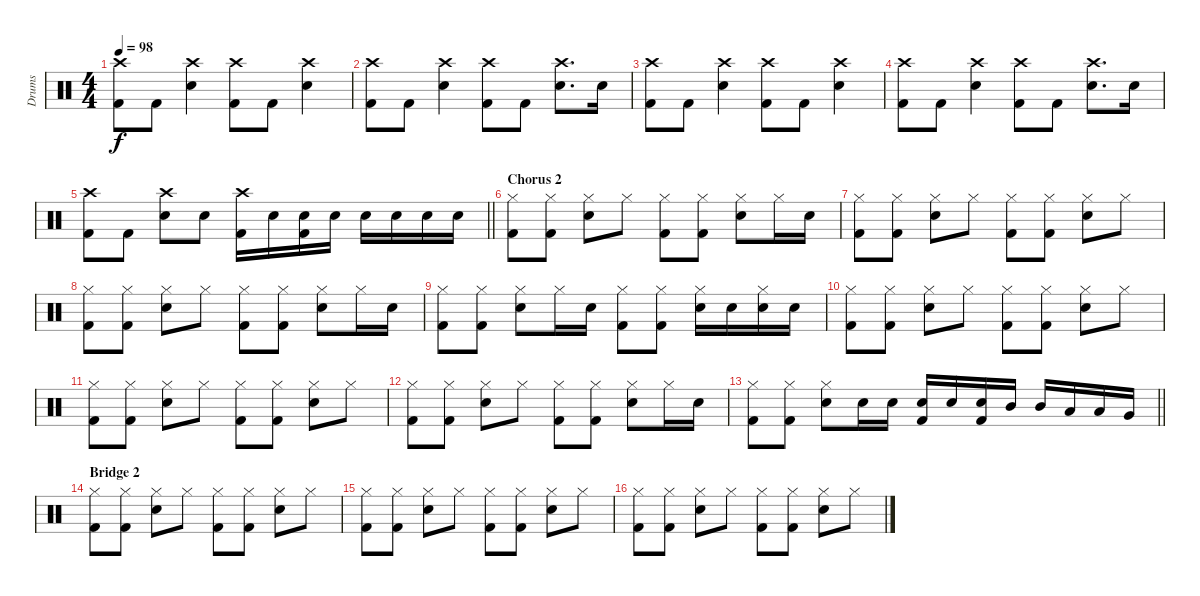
\track ("Drums" "Drums") {instrument percussion}
\staff {score}
\articulation defaults
\ts (4 4)
\tempo 98
\clef neutral
\ks c
("Crash high (hit)" "Kick (hit) 2").8{dy f} "Kick (hit) 2".8 ("Crash high (hit)" "Electric Snare (hit)").4 ("Crash high (hit)" "Kick (hit) 2").8 "Kick (hit) 2".8 ("Crash high (hit)" "Electric Snare (hit)").4 |
("Crash high (hit)" "Kick (hit) 2").8 "Kick (hit) 2".8 ("Crash high (hit)" "Electric Snare (hit)").4 ("Crash high (hit)" "Kick (hit) 2").8 "Kick (hit) 2".8 ("Crash high (hit)" "Electric Snare (hit)").8{d} "Electric Snare (hit)".16 |
("Crash high (hit)" "Kick (hit) 2").8 "Kick (hit) 2".8 ("Crash high (hit)" "Electric Snare (hit)").4 ("Crash high (hit)" "Kick (hit) 2").8 "Kick (hit) 2".8 ("Crash high (hit)" "Electric Snare (hit)").4 |
("Crash high (hit)" "Kick (hit) 2").8 "Kick (hit) 2".8 ("Crash high (hit)" "Electric Snare (hit)").4 ("Crash high (hit)" "Kick (hit) 2").8 "Kick (hit) 2".8 ("Crash high (hit)" "Electric Snare (hit)").8{d} "Electric Snare (hit)".16 |
\barLineRight lightlight
("Crash high (hit)" "Kick (hit) 2").8 "Kick (hit) 2".8 ("Crash high (hit)" "Electric Snare (hit)").8 "Electric Snare (hit)".8 ("Crash high (hit)" "Kick (hit) 2").16 "Electric Snare (hit)".16 ("Electric Snare (hit)" "Kick (hit) 2").16 "Electric Snare (hit)".16 "Electric Snare (hit)".16 "Electric Snare (hit)".16 "Electric Snare (hit)".16 "Electric Snare (hit)".16 |
\section ("" "Chorus 2")
("Hi-Hat (closed)" "Kick (hit) 2").8 ("Hi-Hat (closed)" "Kick (hit) 2").8 ("Hi-Hat (closed)" "Electric Snare (hit)").8 "Hi-Hat (closed)".8 ("Hi-Hat (closed)" "Kick (hit) 2").8 ("Hi-Hat (closed)" "Kick (hit) 2").8 ("Hi-Hat (closed)" "Electric Snare (hit)").8 "Hi-Hat (closed)".16 "Electric Snare (hit)".16 |
("Hi-Hat (closed)" "Kick (hit) 2").8 ("Hi-Hat (closed)" "Kick (hit) 2").8 ("Hi-Hat (closed)" "Electric Snare (hit)").8 "Hi-Hat (closed)".8 ("Hi-Hat (closed)" "Kick (hit) 2").8 ("Hi-Hat (closed)" "Kick (hit) 2").8 ("Hi-Hat (closed)" "Electric Snare (hit)").8 "Hi-Hat (closed)".8 |
("Hi-Hat (closed)" "Kick (hit) 2").8 ("Hi-Hat (closed)" "Kick (hit) 2").8 ("Hi-Hat (closed)" "Electric Snare (hit)").8 "Hi-Hat (closed)".8 ("Hi-Hat (closed)" "Kick (hit) 2").8 ("Hi-Hat (closed)" "Kick (hit) 2").8 ("Hi-Hat (closed)" "Electric Snare (hit)").8 "Hi-Hat (closed)".16 "Electric Snare (hit)".16 |
("Hi-Hat (closed)" "Kick (hit) 2").8 ("Hi-Hat (closed)" "Kick (hit) 2").8 ("Hi-Hat (closed)" "Electric Snare (hit)").8 "Hi-Hat (closed)".16 "Electric Snare (hit)".16 ("Hi-Hat (closed)" "Kick (hit) 2").8 ("Hi-Hat (closed)" "Kick (hit) 2").8 ("Hi-Hat (closed)" "Electric Snare (hit)").16 "Electric Snare (hit)".16 ("Hi-Hat (closed)" "Electric Snare (hit)").16 "Electric Snare (hit)".16 |
("Hi-Hat (closed)" "Kick (hit) 2").8 ("Hi-Hat (closed)" "Kick (hit) 2").8 ("Hi-Hat (closed)" "Electric Snare (hit)").8 "Hi-Hat (closed)".8 ("Hi-Hat (closed)" "Kick (hit) 2").8 ("Hi-Hat (closed)" "Kick (hit) 2").8 ("Hi-Hat (closed)" "Electric Snare (hit)").8 "Hi-Hat (closed)".8 |
("Hi-Hat (closed)" "Kick (hit) 2").8 ("Hi-Hat (closed)" "Kick (hit) 2").8 ("Hi-Hat (closed)" "Electric Snare (hit)").8 "Hi-Hat (closed)".8 ("Hi-Hat (closed)" "Kick (hit) 2").8 ("Hi-Hat (closed)" "Kick (hit) 2").8 ("Hi-Hat (closed)" "Electric Snare (hit)").8 "Hi-Hat (closed)".8 |
("Hi-Hat (closed)" "Kick (hit) 2").8 ("Hi-Hat (closed)" "Kick (hit) 2").8 ("Hi-Hat (closed)" "Electric Snare (hit)").8 "Hi-Hat (closed)".8 ("Hi-Hat (closed)" "Kick (hit) 2").8 ("Hi-Hat (closed)" "Kick (hit) 2").8 ("Hi-Hat (closed)" "Electric Snare (hit)").8 "Hi-Hat (closed)".16 "Electric Snare (hit)".16 |
\barLineRight lightlight
("Hi-Hat (closed)" "Kick (hit) 2").8 ("Hi-Hat (closed)" "Kick (hit) 2").8 ("Hi-Hat (closed)" "Electric Snare (hit)").8 "Electric Snare (hit)".16 "Electric Snare (hit)".16 ("Electric Snare (hit)" "Kick (hit) 2").16 "Electric Snare (hit)".16 ("Electric Snare (hit)" "Kick (hit) 2").16 "Mid Tom (hit)".16 "Mid Tom (hit)".16 "Low Tom (hit)".16 "Low Tom (hit)".16 "Very Low Tom (hit)".16 |
\section ("" "Bridge 2")
("Hi-Hat (closed)" "Kick (hit) 2").8 ("Hi-Hat (closed)" "Kick (hit) 2").8 ("Hi-Hat (closed)" "Electric Snare (hit)").8 "Hi-Hat (closed)".8 ("Hi-Hat (closed)" "Kick (hit) 2").8 ("Hi-Hat (closed)" "Kick (hit) 2").8 ("Hi-Hat (closed)" "Electric Snare (hit)").8 "Hi-Hat (closed)".8 |
("Hi-Hat (closed)" "Kick (hit) 2").8 ("Hi-Hat (closed)" "Kick (hit) 2").8 ("Hi-Hat (closed)" "Electric Snare (hit)").8 "Hi-Hat (closed)".8 ("Hi-Hat (closed)" "Kick (hit) 2").8 ("Hi-Hat (closed)" "Kick (hit) 2").8 ("Hi-Hat (closed)" "Electric Snare (hit)").8 "Hi-Hat (closed)".8 |
("Hi-Hat (closed)" "Kick (hit) 2").8 ("Hi-Hat (closed)" "Kick (hit) 2").8 ("Hi-Hat (closed)" "Electric Snare (hit)").8 "Hi-Hat (closed)".8 ("Hi-Hat (closed)" "Kick (hit) 2").8 ("Hi-Hat (closed)" "Kick (hit) 2").8 ("Hi-Hat (closed)" "Electric Snare (hit)").8 "Hi-Hat (closed)".8
